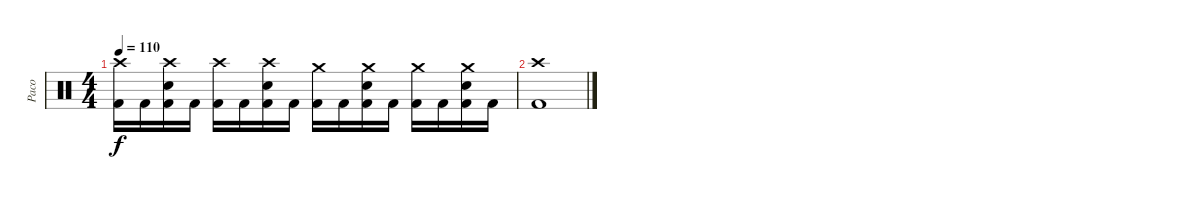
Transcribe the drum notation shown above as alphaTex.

\track ("Paco" "Paco") {instrument percussion}
\staff {score}
\articulation defaults
\ts (4 4)
\tempo 110
\clef neutral
\ks c
("Crash high (hit)" "Kick (hit) 2").16{dy f} "Kick (hit) 2".16 ("Crash high (hit)" "Electric Snare (hit)" "Kick (hit) 2").16 "Kick (hit) 2".16 ("Crash high (hit)" "Kick (hit) 2").16 "Kick (hit) 2".16 ("Crash high (hit)" "Electric Snare (hit)" "Kick (hit) 2").16 "Kick (hit) 2".16 ("Crash medium (hit)" "Kick (hit) 2").16 "Kick (hit) 2".16 ("Crash medium (hit)" "Electric Snare (hit)" "Kick (hit) 2").16 "Kick (hit) 2".16 ("Crash medium (hit)" "Kick (hit) 2").16 "Kick (hit) 2".16 ("Crash medium (hit)" "Electric Snare (hit)" "Kick (hit) 2").16 "Kick (hit) 2".16 |
("Crash high (hit)" "Kick (hit) 2").1
